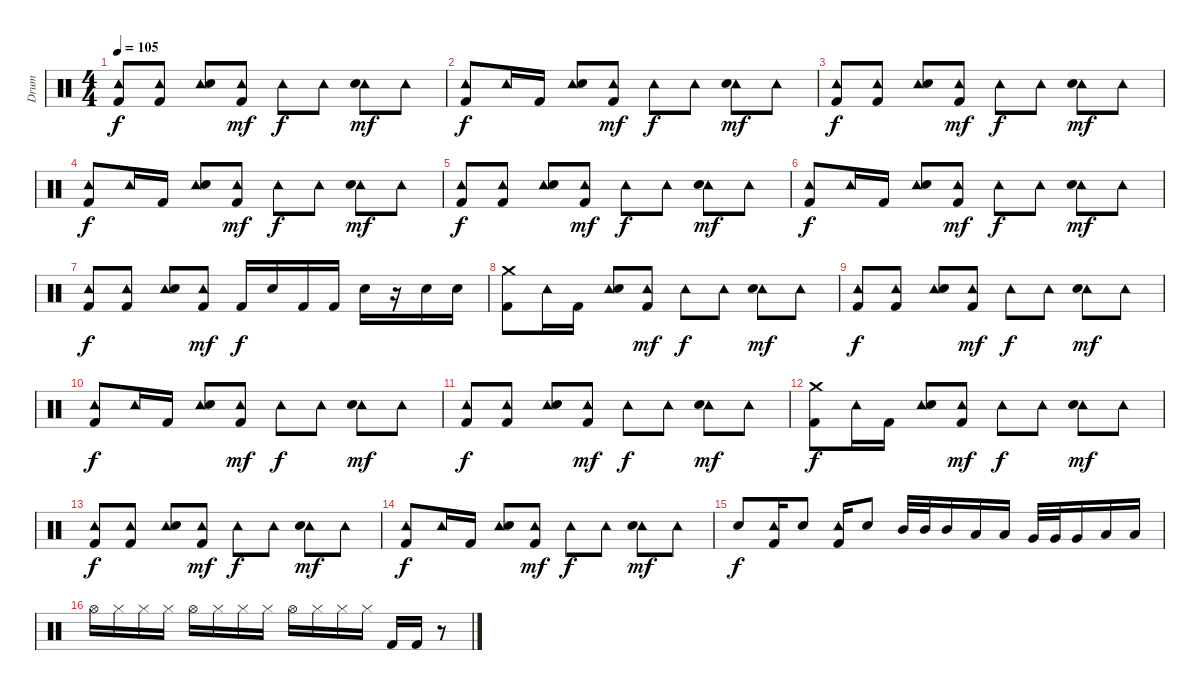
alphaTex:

\track ("Drum" "Drum") {instrument percussion}
\staff {score}
\articulation defaults
\ts (4 4)
\tempo 105
\clef neutral
\ks c
("Tambourine (hit)" "Kick (hit) 2").8{dy f} ("Tambourine (hit)" "Kick (hit) 2").8 ("Tambourine (hit)" "Electric Snare (hit)").8 ("Tambourine (hit)" "Kick (hit) 2").8{dy mf} "Tambourine (hit)".8{dy f} "Tambourine (hit)".8 ("Tambourine (hit)" "Electric Snare (hit)").8{dy mf} "Tambourine (hit)".8 |
("Tambourine (hit)" "Kick (hit) 2").8{dy f} "Tambourine (hit)".16 "Kick (hit) 2".16 ("Tambourine (hit)" "Electric Snare (hit)").8 ("Tambourine (hit)" "Kick (hit) 2").8{dy mf} "Tambourine (hit)".8{dy f} "Tambourine (hit)".8 ("Tambourine (hit)" "Electric Snare (hit)").8{dy mf} "Tambourine (hit)".8 |
("Tambourine (hit)" "Kick (hit) 2").8{dy f} ("Tambourine (hit)" "Kick (hit) 2").8 ("Tambourine (hit)" "Electric Snare (hit)").8 ("Tambourine (hit)" "Kick (hit) 2").8{dy mf} "Tambourine (hit)".8{dy f} "Tambourine (hit)".8 ("Tambourine (hit)" "Electric Snare (hit)").8{dy mf} "Tambourine (hit)".8 |
("Tambourine (hit)" "Kick (hit) 2").8{dy f} "Tambourine (hit)".16 "Kick (hit) 2".16 ("Tambourine (hit)" "Electric Snare (hit)").8 ("Tambourine (hit)" "Kick (hit) 2").8{dy mf} "Tambourine (hit)".8{dy f} "Tambourine (hit)".8 ("Tambourine (hit)" "Electric Snare (hit)").8{dy mf} "Tambourine (hit)".8 |
("Tambourine (hit)" "Kick (hit) 2").8{dy f} ("Tambourine (hit)" "Kick (hit) 2").8 ("Tambourine (hit)" "Electric Snare (hit)").8 ("Tambourine (hit)" "Kick (hit) 2").8{dy mf} "Tambourine (hit)".8{dy f} "Tambourine (hit)".8 ("Tambourine (hit)" "Electric Snare (hit)").8{dy mf} "Tambourine (hit)".8 |
("Tambourine (hit)" "Kick (hit) 2").8{dy f} "Tambourine (hit)".16 "Kick (hit) 2".16 ("Tambourine (hit)" "Electric Snare (hit)").8 ("Tambourine (hit)" "Kick (hit) 2").8{dy mf} "Tambourine (hit)".8{dy f} "Tambourine (hit)".8 ("Tambourine (hit)" "Electric Snare (hit)").8{dy mf} "Tambourine (hit)".8 |
("Tambourine (hit)" "Kick (hit) 2").8{dy f} ("Tambourine (hit)" "Kick (hit) 2").8 ("Tambourine (hit)" "Electric Snare (hit)").8 ("Tambourine (hit)" "Kick (hit) 2").8{dy mf} "Kick (hit) 2".16{dy f} "Electric Snare (hit)".16 "Kick (hit) 2".16 "Kick (hit) 2".16 "Electric Snare (hit)".16 r.16 "Electric Snare (hit)".16 "Electric Snare (hit)".16 |
("Crash medium (hit)" "Kick (hit) 2").8 "Tambourine (hit)".16 "Kick (hit) 2".16 ("Tambourine (hit)" "Electric Snare (hit)").8 ("Tambourine (hit)" "Kick (hit) 2").8{dy mf} "Tambourine (hit)".8{dy f} "Tambourine (hit)".8 ("Tambourine (hit)" "Electric Snare (hit)").8{dy mf} "Tambourine (hit)".8 |
("Tambourine (hit)" "Kick (hit) 2").8{dy f} ("Tambourine (hit)" "Kick (hit) 2").8 ("Tambourine (hit)" "Electric Snare (hit)").8 ("Tambourine (hit)" "Kick (hit) 2").8{dy mf} "Tambourine (hit)".8{dy f} "Tambourine (hit)".8 ("Tambourine (hit)" "Electric Snare (hit)").8{dy mf} "Tambourine (hit)".8 |
("Tambourine (hit)" "Kick (hit) 2").8{dy f} "Tambourine (hit)".16 "Kick (hit) 2".16 ("Tambourine (hit)" "Electric Snare (hit)").8 ("Tambourine (hit)" "Kick (hit) 2").8{dy mf} "Tambourine (hit)".8{dy f} "Tambourine (hit)".8 ("Tambourine (hit)" "Electric Snare (hit)").8{dy mf} "Tambourine (hit)".8 |
("Tambourine (hit)" "Kick (hit) 2").8{dy f} ("Tambourine (hit)" "Kick (hit) 2").8 ("Tambourine (hit)" "Electric Snare (hit)").8 ("Tambourine (hit)" "Kick (hit) 2").8{dy mf} "Tambourine (hit)".8{dy f} "Tambourine (hit)".8 ("Tambourine (hit)" "Electric Snare (hit)").8{dy mf} "Tambourine (hit)".8 |
("Crash medium (hit)" "Kick (hit) 2").8{dy f} "Tambourine (hit)".16 "Kick (hit) 2".16 ("Tambourine (hit)" "Electric Snare (hit)").8 ("Tambourine (hit)" "Kick (hit) 2").8{dy mf} "Tambourine (hit)".8{dy f} "Tambourine (hit)".8 ("Tambourine (hit)" "Electric Snare (hit)").8{dy mf} "Tambourine (hit)".8 |
("Tambourine (hit)" "Kick (hit) 2").8{dy f} ("Tambourine (hit)" "Kick (hit) 2").8 ("Tambourine (hit)" "Electric Snare (hit)").8 ("Tambourine (hit)" "Kick (hit) 2").8{dy mf} "Tambourine (hit)".8{dy f} "Tambourine (hit)".8 ("Tambourine (hit)" "Electric Snare (hit)").8{dy mf} "Tambourine (hit)".8 |
("Tambourine (hit)" "Kick (hit) 2").8{dy f} "Tambourine (hit)".16 "Kick (hit) 2".16 ("Tambourine (hit)" "Electric Snare (hit)").8 ("Tambourine (hit)" "Kick (hit) 2").8{dy mf} "Tambourine (hit)".8{dy f} "Tambourine (hit)".8 ("Tambourine (hit)" "Electric Snare (hit)").8{dy mf} "Tambourine (hit)".8 |
"Electric Snare (hit)".8{dy f} ("Tambourine (hit)" "Kick (hit) 2").16 "Electric Snare (hit)".8 ("Tambourine (hit)" "Kick (hit) 2").16 "Electric Snare (hit)".8 "Mid Tom (hit)".32 "Mid Tom (hit)".32 "Mid Tom (hit)".16 "Low Tom (hit)".16 "Low Tom (hit)".16 "Very Low Tom (hit)".32 "Very Low Tom (hit)".32 "Very Low Tom (hit)".16 "Low Floor Tom (hit)".16 "Low Floor Tom (hit)".16 |
"Hi-Hat (open)".16 "Hi-Hat (closed)".16 "Hi-Hat (closed)".16 "Hi-Hat (closed)".16 "Hi-Hat (open)".16 "Hi-Hat (closed)".16 "Hi-Hat (closed)".16 "Hi-Hat (closed)".16 "Hi-Hat (open)".16 "Hi-Hat (closed)".16 "Hi-Hat (closed)".16 "Hi-Hat (closed)".16 "Kick (hit) 2".16 "Kick (hit) 2".16 r.8
